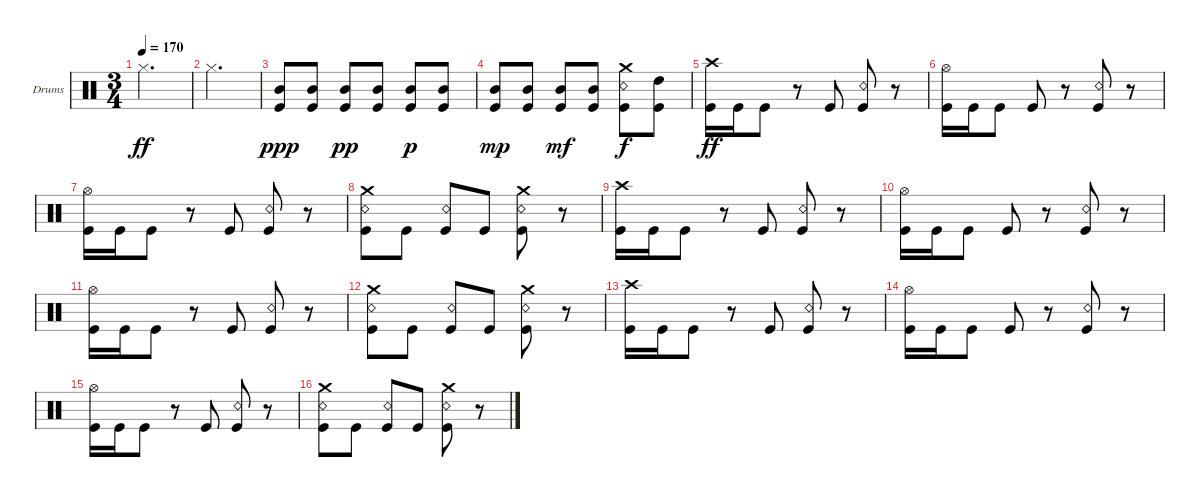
\bracketExtendMode groupsimilarinstruments
\firstSystemTrackNameOrientation horizontal
\otherSystemsTrackNameOrientation horizontal
\track ("Kaleb - Drums" "Drums") {instrument percussion}
\staff {score}
\articulation defaults
\ts (3 4)
\tempo 170
\clef neutral
\ks c "Hi-Hat (closed)".2{d dy ff}
|
"Hi-Hat (closed)".2{d} |
("Kick (hit)" "Mid Tom (hit)").8{dy ppp} ("Kick (hit)" "Mid Tom (hit)").8 ("Kick (hit)" "Mid Tom (hit)").8{dy pp} ("Kick (hit)" "Mid Tom (hit)").8 ("Kick (hit)" "Mid Tom (hit)").8{dy p} ("Kick (hit)" "Mid Tom (hit)").8 |
("Kick (hit)" "Mid Tom (hit)").8{dy mp} ("Kick (hit)" "Mid Tom (hit)").8 ("Kick (hit)" "Mid Tom (hit)").8{dy mf} ("Kick (hit)" "Mid Tom (hit)").8 ("Kick (hit)" "Snare (rim shot)" "Crash medium (hit)").8{dy f} ("Kick (hit)" "High Tom (hit)").8 |
("Kick (hit)" "Crash high (hit)").16{dy ff} "Kick (hit)".16 "Kick (hit)".8 r.8 "Kick (hit)".8 ("Kick (hit)" "Snare (rim shot)").8 r.8 |
("Kick (hit)" "Hi-Hat (open)").16 "Kick (hit)".16 "Kick (hit)".8 "Kick (hit)".8 r.8 ("Kick (hit)" "Snare (rim shot)").8 r.8 |
("Kick (hit)" "Hi-Hat (open)").16 "Kick (hit)".16 "Kick (hit)".8 r.8 "Kick (hit)".8 ("Kick (hit)" "Snare (rim shot)").8 r.8 |
("Kick (hit)" "Crash medium (hit)" "Snare (rim shot)").8 "Kick (hit)".8 ("Kick (hit)" "Snare (rim shot)").8 "Kick (hit)".8 ("Kick (hit)" "Crash medium (hit)" "Snare (rim shot)").8 r.8 |
("Kick (hit)" "Crash high (hit)").16 "Kick (hit)".16 "Kick (hit)".8 r.8 "Kick (hit)".8 ("Kick (hit)" "Snare (rim shot)").8 r.8 |
("Kick (hit)" "Hi-Hat (open)").16 "Kick (hit)".16 "Kick (hit)".8 "Kick (hit)".8 r.8 ("Kick (hit)" "Snare (rim shot)").8 r.8 |
("Kick (hit)" "Hi-Hat (open)").16 "Kick (hit)".16 "Kick (hit)".8 r.8 "Kick (hit)".8 ("Kick (hit)" "Snare (rim shot)").8 r.8 |
("Kick (hit)" "Crash medium (hit)" "Snare (rim shot)").8 "Kick (hit)".8 ("Kick (hit)" "Snare (rim shot)").8 "Kick (hit)".8 ("Kick (hit)" "Crash medium (hit)" "Snare (rim shot)").8 r.8 |
("Kick (hit)" "Crash high (hit)").16 "Kick (hit)".16 "Kick (hit)".8 r.8 "Kick (hit)".8 ("Kick (hit)" "Snare (rim shot)").8 r.8 |
("Kick (hit)" "Hi-Hat (open)").16 "Kick (hit)".16 "Kick (hit)".8 "Kick (hit)".8 r.8 ("Kick (hit)" "Snare (rim shot)").8 r.8 |
("Kick (hit)" "Hi-Hat (open)").16 "Kick (hit)".16 "Kick (hit)".8 r.8 "Kick (hit)".8 ("Kick (hit)" "Snare (rim shot)").8 r.8 |
("Kick (hit)" "Crash medium (hit)" "Snare (rim shot)").8 "Kick (hit)".8 ("Kick (hit)" "Snare (rim shot)").8 "Kick (hit)".8 ("Kick (hit)" "Crash medium (hit)" "Snare (rim shot)").8 r.8
